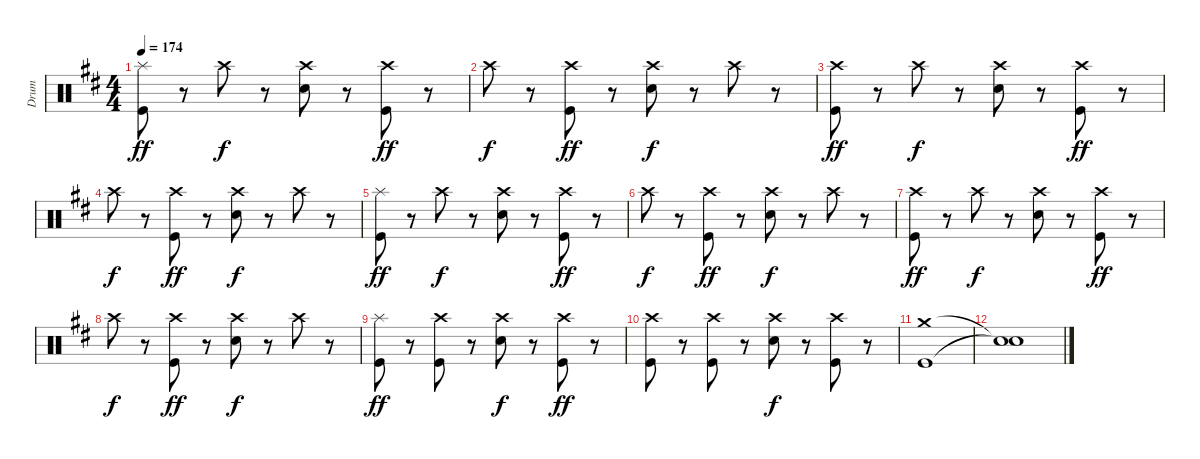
\track ("Drum" "Drum") {instrument percussion}
\staff {score}
\articulation defaults
\ts (4 4)
\tempo 174
\clef neutral
\ks d
("Splash (hit)" "Kick (hit)").8{dy ff} r.8 "Crash high (hit)".8{dy f} r.8 ("Crash high (hit)" "Snare (hit) 2").8 r.8 ("Crash high (hit)" "Kick (hit)").8{dy ff} r.8 |
"Crash high (hit)".8{dy f} r.8 ("Crash high (hit)" "Kick (hit)").8{dy ff} r.8 ("Crash high (hit)" "Snare (hit) 2").8{dy f} r.8 "Crash high (hit)".8 r.8 |
("Crash high (hit)" "Kick (hit)").8{dy ff} r.8 "Crash high (hit)".8{dy f} r.8 ("Crash high (hit)" "Snare (hit) 2").8 r.8 ("Crash high (hit)" "Kick (hit)").8{dy ff} r.8 |
"Crash high (hit)".8{dy f} r.8 ("Crash high (hit)" "Kick (hit)").8{dy ff} r.8 ("Crash high (hit)" "Snare (hit) 2").8{dy f} r.8 "Crash high (hit)".8 r.8 |
("Splash (hit)" "Kick (hit)").8{dy ff} r.8 "Crash high (hit)".8{dy f} r.8 ("Crash high (hit)" "Snare (hit) 2").8 r.8 ("Crash high (hit)" "Kick (hit)").8{dy ff} r.8 |
"Crash high (hit)".8{dy f} r.8 ("Crash high (hit)" "Kick (hit)").8{dy ff} r.8 ("Crash high (hit)" "Snare (hit) 2").8{dy f} r.8 "Crash high (hit)".8 r.8 |
("Crash high (hit)" "Kick (hit)").8{dy ff} r.8 "Crash high (hit)".8{dy f} r.8 ("Crash high (hit)" "Snare (hit) 2").8 r.8 ("Crash high (hit)" "Kick (hit)").8{dy ff} r.8 |
"Crash high (hit)".8{dy f} r.8 ("Crash high (hit)" "Kick (hit)").8{dy ff} r.8 ("Crash high (hit)" "Snare (hit) 2").8{dy f} r.8 "Crash high (hit)".8 r.8 |
("Splash (hit)" "Kick (hit)").8{dy ff} r.8 ("Crash high (hit)" "Kick (hit)").8 r.8 ("Crash high (hit)" "Snare (hit) 2").8{dy f} r.8 ("Crash high (hit)" "Kick (hit)").8{dy ff} r.8 |
("Crash high (hit)" "Kick (hit)").8 r.8 ("Crash high (hit)" "Kick (hit)").8 r.8 ("Crash high (hit)" "Snare (hit) 2").8{dy f} r.8 ("Crash high (hit)" "Kick (hit)").8 r.8 |
("Crash medium (hit)" "Kick (hit)").1 |
("Snare (hit)"{t} "Snare (hit)"{t}).1
